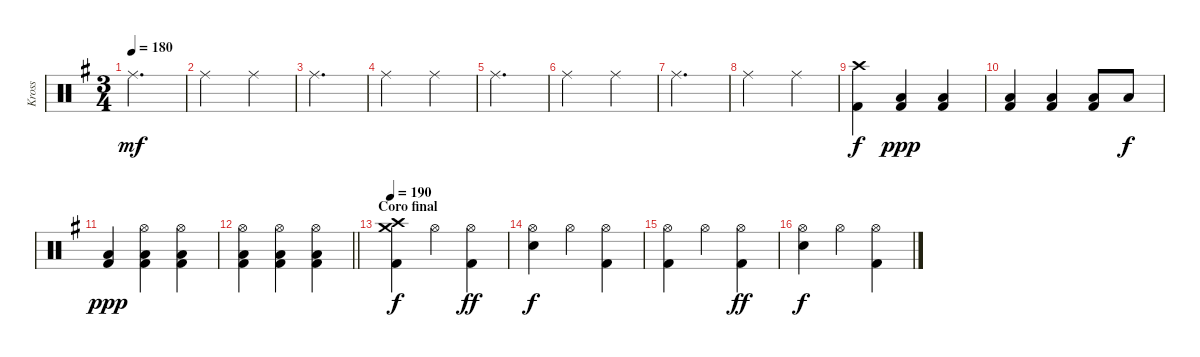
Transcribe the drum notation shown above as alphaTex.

\track ("Kross" "Kross") {instrument percussion}
\staff {score}
\articulation defaults
\ts (3 4)
\tempo 180
\clef neutral
\ks g "Ride (middle)".2{d dy mf}
|
"Ride (middle)".2 "Ride (middle)".4 |
"Ride (middle)".2{d} |
"Ride (middle)".2 "Ride (middle)".4 |
"Ride (middle)".2{d} |
"Ride (middle)".2 "Ride (middle)".4 |
"Ride (middle)".2{d} |
"Ride (middle)".2 "Ride (middle)".4 |
("Crash high (hit)" "Kick (hit) 2").4{dy f} ("Low Floor Tom (hit)" "Kick (hit) 2").4{dy ppp} ("Low Floor Tom (hit)" "Kick (hit) 2").4 |
("Low Floor Tom (hit)" "Kick (hit) 2").4 ("Low Floor Tom (hit)" "Kick (hit) 2").4 ("Low Floor Tom (hit)" "Kick (hit) 2").8 "Low Floor Tom (hit)".8{dy f} |
("Low Floor Tom (hit)" "Kick (hit) 2").4{dy ppp} ("Hi-Hat (open)" "Low Floor Tom (hit)" "Kick (hit) 2").4 ("Hi-Hat (open)" "Low Floor Tom (hit)" "Kick (hit) 2").4 |
\barLineRight lightlight
("Hi-Hat (open)" "Low Floor Tom (hit)" "Kick (hit) 2").4 ("Hi-Hat (open)" "Low Floor Tom (hit)" "Kick (hit) 2").4 ("Hi-Hat (open)" "Low Floor Tom (hit)" "Kick (hit) 2").4 |
\section ("" "Coro final")
\tempo 190
("Crash high (hit)" "Crash medium (hit)" "Kick (hit) 2").4{dy f} "Hi-Hat (open)".4 ("Hi-Hat (open)" "Kick (hit) 2").4{dy ff} |
("Hi-Hat (open)" "Snare (hit) 2").4{dy f} "Hi-Hat (open)".4 ("Hi-Hat (open)" "Kick (hit) 2").4 |
("Hi-Hat (open)" "Kick (hit) 2").4 "Hi-Hat (open)".4 ("Hi-Hat (open)" "Kick (hit) 2").4{dy ff} |
("Hi-Hat (open)" "Snare (hit) 2").4{dy f} "Hi-Hat (open)".4 ("Hi-Hat (open)" "Kick (hit) 2").4
